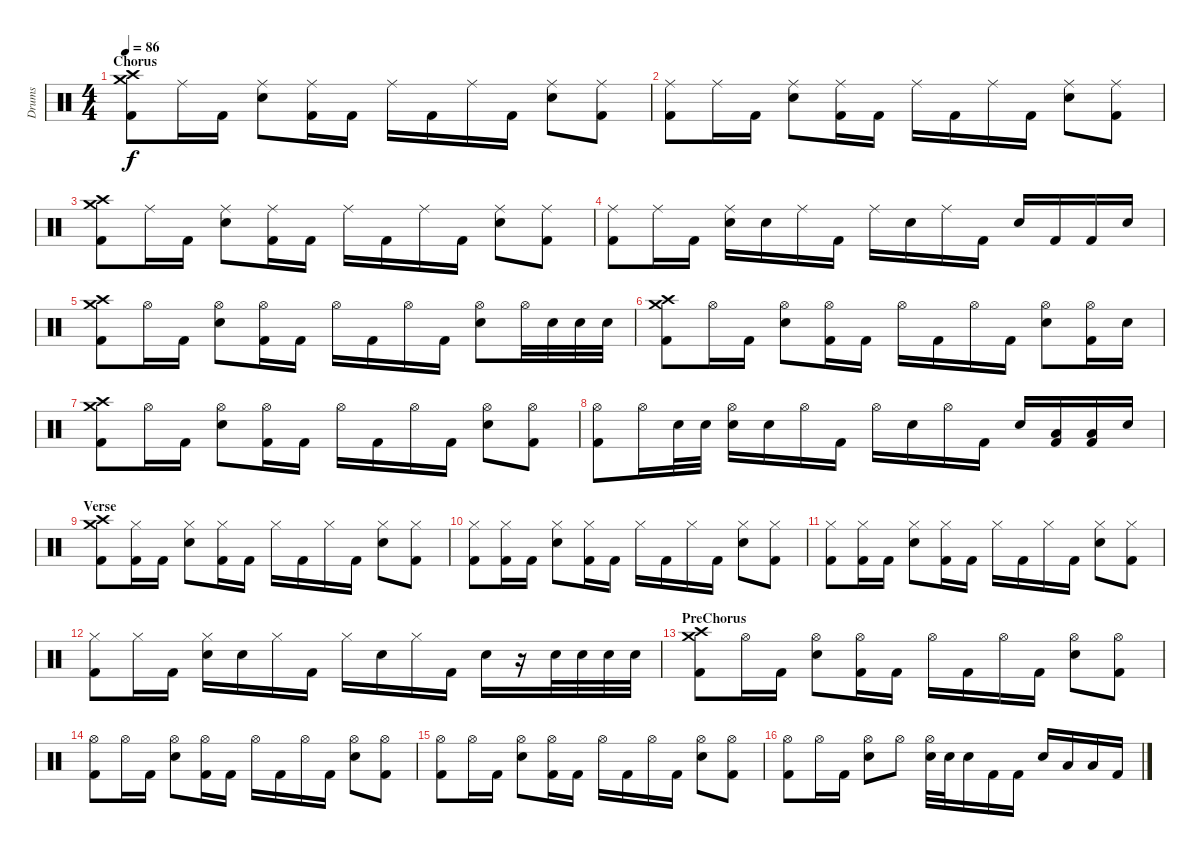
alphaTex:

\track ("Drums" "Drums") {instrument percussion}
\staff {score}
\articulation defaults
\ts (4 4)
\section ("" "Chorus")
\tempo 86
\clef neutral
\ks c
("Crash high (hit)" "Crash medium (hit)" "Kick (hit) 2").8{dy f} "Ride (middle)".16 "Kick (hit) 2".16 ("Ride (middle)" "Snare (hit) 2").8 ("Ride (middle)" "Kick (hit) 2").16 "Kick (hit) 2".16 "Ride (middle)".16 "Kick (hit) 2".16 "Ride (middle)".16 "Kick (hit) 2".16 ("Ride (middle)" "Snare (hit) 2").8 ("Ride (middle)" "Kick (hit) 2").8 |
("Ride (middle)" "Kick (hit) 2").8 "Ride (middle)".16 "Kick (hit) 2".16 ("Ride (middle)" "Snare (hit) 2").8 ("Ride (middle)" "Kick (hit) 2").16 "Kick (hit) 2".16 "Ride (middle)".16 "Kick (hit) 2".16 "Ride (middle)".16 "Kick (hit) 2".16 ("Ride (middle)" "Snare (hit) 2").8 ("Ride (middle)" "Kick (hit) 2").8 |
("Crash high (hit)" "Crash medium (hit)" "Kick (hit) 2").8 "Ride (middle)".16 "Kick (hit) 2".16 ("Ride (middle)" "Snare (hit) 2").8 ("Ride (middle)" "Kick (hit) 2").16 "Kick (hit) 2".16 "Ride (middle)".16 "Kick (hit) 2".16 "Ride (middle)".16 "Kick (hit) 2".16 ("Ride (middle)" "Snare (hit) 2").8 ("Ride (middle)" "Kick (hit) 2").8 |
("Ride (middle)" "Kick (hit) 2").8 "Ride (middle)".16 "Kick (hit) 2".16 ("Ride (middle)" "Snare (hit) 2").16 "Snare (hit) 2".16 "Ride (middle)".16 "Kick (hit) 2".16 "Ride (middle)".16 "Snare (hit) 2".16 "Ride (middle)".16 "Kick (hit) 2".16 "Snare (hit) 2".16 "Kick (hit) 2".16 "Kick (hit) 2".16 "Snare (hit) 2".16 |
("Crash high (hit)" "Crash medium (hit)" "Kick (hit) 2").8 "Hi-Hat (open)".16 "Kick (hit) 2".16 ("Hi-Hat (open)" "Snare (hit) 2").8 ("Hi-Hat (open)" "Kick (hit) 2").16 "Kick (hit) 2".16 "Hi-Hat (open)".16 "Kick (hit) 2".16 "Hi-Hat (open)".16 "Kick (hit) 2".16 ("Hi-Hat (open)" "Snare (hit) 2").8 "Hi-Hat (open)".32 "Snare (hit) 2".32 "Snare (hit) 2".32 "Snare (hit) 2".32 |
("Crash high (hit)" "Crash medium (hit)" "Kick (hit) 2").8 "Hi-Hat (open)".16 "Kick (hit) 2".16 ("Hi-Hat (open)" "Snare (hit) 2").8 ("Hi-Hat (open)" "Kick (hit) 2").16 "Kick (hit) 2".16 "Hi-Hat (open)".16 "Kick (hit) 2".16 "Hi-Hat (open)".16 "Kick (hit) 2".16 ("Hi-Hat (open)" "Snare (hit) 2").8 ("Hi-Hat (open)" "Kick (hit) 2").16 "Snare (hit) 2".16 |
("Crash high (hit)" "Crash medium (hit)" "Kick (hit) 2").8 "Hi-Hat (open)".16 "Kick (hit) 2".16 ("Hi-Hat (open)" "Snare (hit) 2").8 ("Hi-Hat (open)" "Kick (hit) 2").16 "Kick (hit) 2".16 "Hi-Hat (open)".16 "Kick (hit) 2".16 "Hi-Hat (open)".16 "Kick (hit) 2".16 ("Hi-Hat (open)" "Snare (hit) 2").8 ("Hi-Hat (open)" "Kick (hit) 2").8 |
("Hi-Hat (open)" "Kick (hit) 2").8 "Hi-Hat (open)".16 "Snare (hit) 2".32 "Snare (hit) 2".32 ("Hi-Hat (open)" "Snare (hit) 2").16 "Snare (hit) 2".16 "Hi-Hat (open)".16 "Kick (hit) 2".16 "Hi-Hat (open)".16 "Snare (hit) 2".16 "Hi-Hat (open)".16 "Kick (hit) 2".16 "Snare (hit) 2".16 ("Low Floor Tom (hit)" "Kick (hit) 2").16 ("Low Floor Tom (hit)" "Kick (hit) 2").16 "Snare (hit) 2".16 |
\section ("" "Verse")
("Crash high (hit)" "Crash medium (hit)" "Kick (hit) 2").8 ("Hi-Hat (closed)" "Kick (hit) 2").16 "Kick (hit) 2".16 ("Hi-Hat (closed)" "Snare (hit) 2").8 ("Hi-Hat (closed)" "Kick (hit) 2").16 "Kick (hit) 2".16 "Hi-Hat (closed)".16 "Kick (hit) 2".16 "Hi-Hat (closed)".16 "Kick (hit) 2".16 ("Hi-Hat (closed)" "Snare (hit) 2").8 ("Hi-Hat (closed)" "Kick (hit) 2").8 |
("Hi-Hat (closed)" "Kick (hit) 2").8 ("Hi-Hat (closed)" "Kick (hit) 2").16 "Kick (hit) 2".16 ("Hi-Hat (closed)" "Snare (hit) 2").8 ("Hi-Hat (closed)" "Kick (hit) 2").16 "Kick (hit) 2".16 "Hi-Hat (closed)".16 "Kick (hit) 2".16 "Hi-Hat (closed)".16 "Kick (hit) 2".16 ("Hi-Hat (closed)" "Snare (hit) 2").8 ("Hi-Hat (closed)" "Kick (hit) 2").8 |
("Hi-Hat (closed)" "Kick (hit) 2").8 ("Hi-Hat (closed)" "Kick (hit) 2").16 "Kick (hit) 2".16 ("Hi-Hat (closed)" "Snare (hit) 2").8 ("Hi-Hat (closed)" "Kick (hit) 2").16 "Kick (hit) 2".16 "Hi-Hat (closed)".16 "Kick (hit) 2".16 "Hi-Hat (closed)".16 "Kick (hit) 2".16 ("Hi-Hat (closed)" "Snare (hit) 2").8 ("Hi-Hat (closed)" "Kick (hit) 2").8 |
("Hi-Hat (closed)" "Kick (hit) 2").8 "Hi-Hat (closed)".16 "Kick (hit) 2".16 ("Hi-Hat (closed)" "Snare (hit) 2").16 "Snare (hit) 2".16 "Hi-Hat (closed)".16 "Kick (hit) 2".16 "Hi-Hat (closed)".16 "Snare (hit) 2".16 "Hi-Hat (closed)".16 "Kick (hit) 2".16 "Snare (hit) 2".16 r.16 "Snare (hit) 2".32 "Snare (hit) 2".32 "Snare (hit) 2".32 "Snare (hit) 2".32 |
\section ("" "PreChorus")
("Crash high (hit)" "Crash medium (hit)" "Kick (hit) 2").8 "Hi-Hat (open)".16 "Kick (hit) 2".16 ("Hi-Hat (open)" "Snare (hit) 2").8 ("Hi-Hat (open)" "Kick (hit) 2").16 "Kick (hit) 2".16 "Hi-Hat (open)".16 "Kick (hit) 2".16 "Hi-Hat (open)".16 "Kick (hit) 2".16 ("Hi-Hat (open)" "Snare (hit) 2").8 ("Hi-Hat (open)" "Kick (hit) 2").8 |
("Hi-Hat (open)" "Kick (hit) 2").8 "Hi-Hat (open)".16 "Kick (hit) 2".16 ("Hi-Hat (open)" "Snare (hit) 2").8 ("Hi-Hat (open)" "Kick (hit) 2").16 "Kick (hit) 2".16 "Hi-Hat (open)".16 "Kick (hit) 2".16 "Hi-Hat (open)".16 "Kick (hit) 2".16 ("Hi-Hat (open)" "Snare (hit) 2").8 ("Hi-Hat (open)" "Kick (hit) 2").8 |
("Hi-Hat (open)" "Kick (hit) 2").8 "Hi-Hat (open)".16 "Kick (hit) 2".16 ("Hi-Hat (open)" "Snare (hit) 2").8 ("Hi-Hat (open)" "Kick (hit) 2").16 "Kick (hit) 2".16 "Hi-Hat (open)".16 "Kick (hit) 2".16 "Hi-Hat (open)".16 "Kick (hit) 2".16 ("Hi-Hat (open)" "Snare (hit) 2").8 ("Hi-Hat (open)" "Kick (hit) 2").8 |
("Hi-Hat (open)" "Kick (hit) 2").8 "Hi-Hat (open)".16 "Kick (hit) 2".16 ("Hi-Hat (open)" "Snare (hit) 2").8 "Hi-Hat (open)".8 ("Hi-Hat (open)" "Snare (hit) 2").32 "Snare (hit) 2".32 "Snare (hit) 2".16 "Kick (hit) 2".16 "Kick (hit) 2".16 "Snare (hit) 2".16 "Low Tom (hit)".16 "Low Floor Tom (hit)".16 "Kick (hit) 2".16
